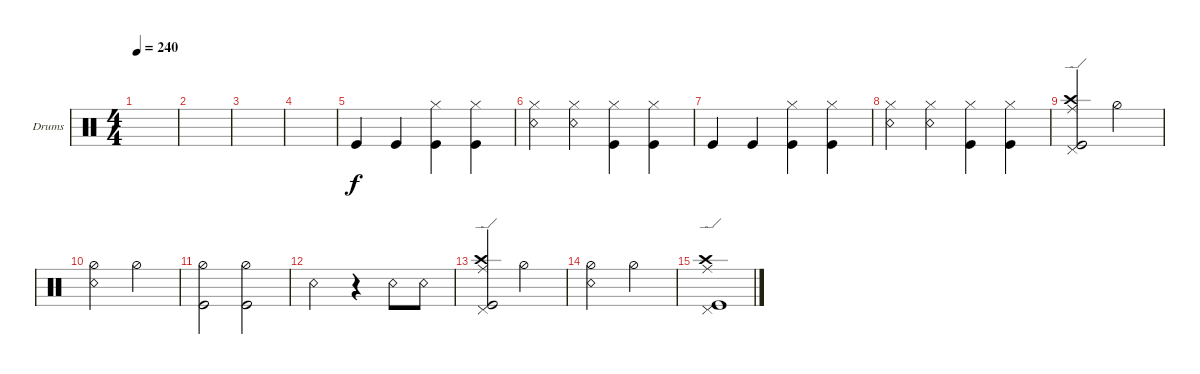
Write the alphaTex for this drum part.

\defaultSystemsLayout 4
\bracketExtendMode groupsimilarinstruments
\firstSystemTrackNameOrientation horizontal
\otherSystemsTrackNameOrientation horizontal
\track ("Drumkit" "Drums") {instrument percussion}
\staff {score}
\articulation defaults
\ts (4 4)
\tempo 240
\clef neutral
\ks c
|
|
|
|
"Kick (hit)".4 "Kick (hit)".4 ("Kick (hit)" "Hi-Hat (closed)").4 ("Kick (hit)" "Hi-Hat (closed)").4 |
("Snare (rim shot)" "Hi-Hat (closed)").4 ("Snare (rim shot)" "Hi-Hat (closed)").4 ("Kick (hit)" "Hi-Hat (closed)").4 ("Kick (hit)" "Hi-Hat (closed)").4 |
"Kick (hit)".4 "Kick (hit)".4 ("Kick (hit)" "Hi-Hat (closed)").4 ("Kick (hit)" "Hi-Hat (closed)").4 |
("Snare (rim shot)" "Hi-Hat (closed)").4 ("Snare (rim shot)" "Hi-Hat (closed)").4 ("Kick (hit)" "Hi-Hat (closed)").4 ("Kick (hit)" "Hi-Hat (closed)").4 |
("Crash high (hit)" "Ride (edge)" "Kick (hit)" "Pedal Hi-Hat (hit)").2 "Hi-Hat (half)".2 |
("Snare (rim shot)" "Hi-Hat (half)").2 "Hi-Hat (half)".2 |
("Kick (hit)" "Hi-Hat (half)").2 ("Kick (hit)" "Hi-Hat (half)").2 |
"Snare (rim shot)".2 r.4 "Snare (rim shot)".8 "Snare (rim shot)".8 |
("Crash high (hit)" "Ride (edge)" "Kick (hit)" "Pedal Hi-Hat (hit)").2 "Hi-Hat (half)".2 |
("Snare (rim shot)" "Hi-Hat (half)").2 "Hi-Hat (half)".2 |
("Crash high (hit)" "Ride (edge)" "Kick (hit)" "Pedal Hi-Hat (hit)").1
